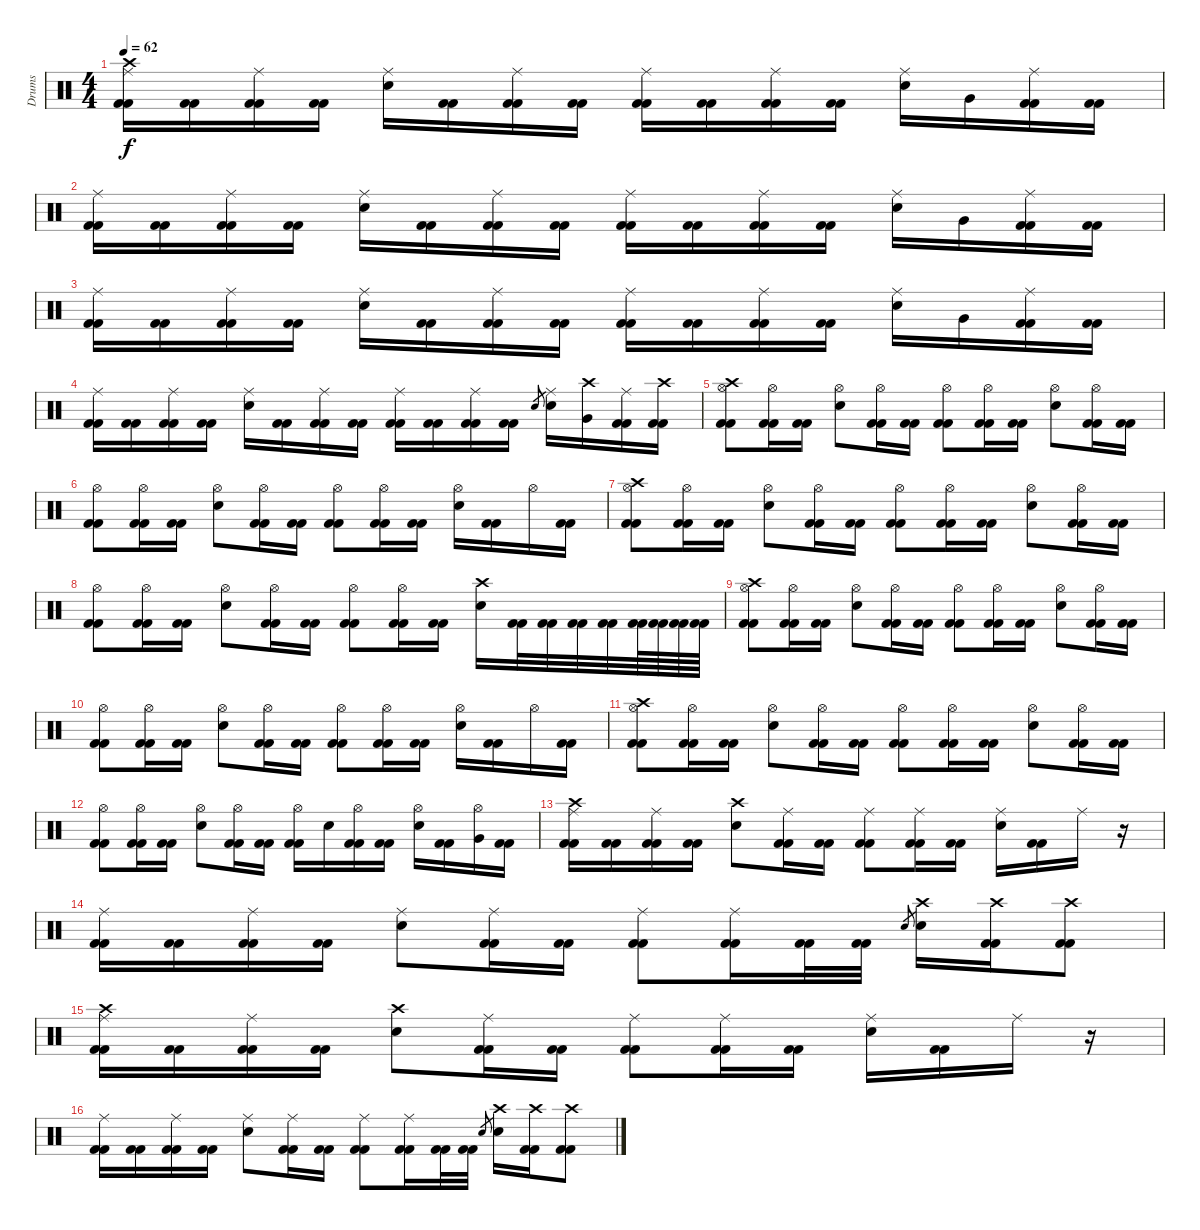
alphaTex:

\track ("Drums" "Drums") {instrument percussion}
\staff {score}
\articulation defaults
\ts (4 4)
\tempo 62
\clef neutral
\ks c
("Kick (hit) 2" "Kick (hit) 2" "Ride (middle)" "Crash high (hit)").16{dy f} ("Kick (hit) 2" "Kick (hit) 2").16 ("Kick (hit) 2" "Kick (hit) 2" "Ride (middle)").16 ("Kick (hit) 2" "Kick (hit) 2").16 ("Electric Snare (hit)" "Ride (middle)").16 ("Kick (hit) 2" "Kick (hit) 2").16 ("Kick (hit) 2" "Kick (hit) 2" "Ride (middle)").16 ("Kick (hit) 2" "Kick (hit) 2").16 ("Kick (hit) 2" "Kick (hit) 2" "Ride (middle)").16 ("Kick (hit) 2" "Kick (hit) 2").16 ("Kick (hit) 2" "Kick (hit) 2" "Ride (middle)").16 ("Kick (hit) 2" "Kick (hit) 2").16 ("Electric Snare (hit)" "Ride (middle)").16 "Very Low Tom (hit)".16 ("Kick (hit) 2" "Kick (hit) 2" "Ride (middle)").16 ("Kick (hit) 2" "Kick (hit) 2").16 |
("Kick (hit) 2" "Kick (hit) 2" "Ride (middle)").16 ("Kick (hit) 2" "Kick (hit) 2").16 ("Kick (hit) 2" "Kick (hit) 2" "Ride (middle)").16 ("Kick (hit) 2" "Kick (hit) 2").16 ("Electric Snare (hit)" "Ride (middle)").16 ("Kick (hit) 2" "Kick (hit) 2").16 ("Kick (hit) 2" "Kick (hit) 2" "Ride (middle)").16 ("Kick (hit) 2" "Kick (hit) 2").16 ("Kick (hit) 2" "Kick (hit) 2" "Ride (middle)").16 ("Kick (hit) 2" "Kick (hit) 2").16 ("Kick (hit) 2" "Kick (hit) 2" "Ride (middle)").16 ("Kick (hit) 2" "Kick (hit) 2").16 ("Electric Snare (hit)" "Ride (middle)").16 "Very Low Tom (hit)".16 ("Kick (hit) 2" "Kick (hit) 2" "Ride (middle)").16 ("Kick (hit) 2" "Kick (hit) 2").16 |
("Kick (hit) 2" "Kick (hit) 2" "Ride (middle)").16 ("Kick (hit) 2" "Kick (hit) 2").16 ("Kick (hit) 2" "Kick (hit) 2" "Ride (middle)").16 ("Kick (hit) 2" "Kick (hit) 2").16 ("Electric Snare (hit)" "Ride (middle)").16 ("Kick (hit) 2" "Kick (hit) 2").16 ("Kick (hit) 2" "Kick (hit) 2" "Ride (middle)").16 ("Kick (hit) 2" "Kick (hit) 2").16 ("Kick (hit) 2" "Kick (hit) 2" "Ride (middle)").16 ("Kick (hit) 2" "Kick (hit) 2").16 ("Kick (hit) 2" "Kick (hit) 2" "Ride (middle)").16 ("Kick (hit) 2" "Kick (hit) 2").16 ("Electric Snare (hit)" "Ride (middle)").16 "Very Low Tom (hit)".16 ("Kick (hit) 2" "Kick (hit) 2" "Ride (middle)").16 ("Kick (hit) 2" "Kick (hit) 2").16 |
("Kick (hit) 2" "Kick (hit) 2" "Ride (middle)").16 ("Kick (hit) 2" "Kick (hit) 2").16 ("Kick (hit) 2" "Kick (hit) 2" "Ride (middle)").16 ("Kick (hit) 2" "Kick (hit) 2").16 ("Electric Snare (hit)" "Ride (middle)").16 ("Kick (hit) 2" "Kick (hit) 2").16 ("Kick (hit) 2" "Kick (hit) 2" "Ride (middle)").16 ("Kick (hit) 2" "Kick (hit) 2").16 ("Kick (hit) 2" "Kick (hit) 2" "Ride (middle)").16 ("Kick (hit) 2" "Kick (hit) 2").16 ("Kick (hit) 2" "Kick (hit) 2" "Ride (middle)").16 ("Kick (hit) 2" "Kick (hit) 2").16 "Electric Snare (hit)".8{gr} ("Electric Snare (hit)" "Ride (middle)").16 ("Very Low Tom (hit)" "Crash high (hit)").16 ("Kick (hit) 2" "Kick (hit) 2" "Ride (middle)").16 ("Kick (hit) 2" "Kick (hit) 2" "Crash high (hit)").16 |
("Kick (hit) 2" "Kick (hit) 2" "Hi-Hat (open)" "Crash high (hit)").8 ("Kick (hit) 2" "Kick (hit) 2" "Hi-Hat (open)").16 ("Kick (hit) 2" "Kick (hit) 2").16 ("Electric Snare (hit)" "Hi-Hat (open)").8 ("Kick (hit) 2" "Kick (hit) 2" "Hi-Hat (open)").16 ("Kick (hit) 2" "Kick (hit) 2").16 ("Kick (hit) 2" "Kick (hit) 2" "Hi-Hat (open)").8 ("Kick (hit) 2" "Kick (hit) 2" "Hi-Hat (open)").16 ("Kick (hit) 2" "Kick (hit) 2").16 ("Electric Snare (hit)" "Hi-Hat (open)").8 ("Kick (hit) 2" "Kick (hit) 2" "Hi-Hat (open)").16 ("Kick (hit) 2" "Kick (hit) 2").16 |
("Kick (hit) 2" "Kick (hit) 2" "Hi-Hat (open)").8 ("Kick (hit) 2" "Kick (hit) 2" "Hi-Hat (open)").16 ("Kick (hit) 2" "Kick (hit) 2").16 ("Electric Snare (hit)" "Hi-Hat (open)").8 ("Kick (hit) 2" "Kick (hit) 2" "Hi-Hat (open)").16 ("Kick (hit) 2" "Kick (hit) 2").16 ("Kick (hit) 2" "Kick (hit) 2" "Hi-Hat (open)").8 ("Kick (hit) 2" "Kick (hit) 2" "Hi-Hat (open)").16 ("Kick (hit) 2" "Kick (hit) 2").16 ("Electric Snare (hit)" "Hi-Hat (open)").16 ("Kick (hit) 2" "Kick (hit) 2").16 "Hi-Hat (open)".16 ("Kick (hit) 2" "Kick (hit) 2").16 |
("Kick (hit) 2" "Kick (hit) 2" "Hi-Hat (open)" "Crash high (hit)").8 ("Kick (hit) 2" "Kick (hit) 2" "Hi-Hat (open)").16 ("Kick (hit) 2" "Kick (hit) 2").16 ("Electric Snare (hit)" "Hi-Hat (open)").8 ("Kick (hit) 2" "Kick (hit) 2" "Hi-Hat (open)").16 ("Kick (hit) 2" "Kick (hit) 2").16 ("Kick (hit) 2" "Kick (hit) 2" "Hi-Hat (open)").8 ("Kick (hit) 2" "Kick (hit) 2" "Hi-Hat (open)").16 ("Kick (hit) 2" "Kick (hit) 2").16 ("Electric Snare (hit)" "Hi-Hat (open)").8 ("Kick (hit) 2" "Kick (hit) 2" "Hi-Hat (open)").16 ("Kick (hit) 2" "Kick (hit) 2").16 |
("Kick (hit) 2" "Kick (hit) 2" "Hi-Hat (open)").8 ("Kick (hit) 2" "Kick (hit) 2" "Hi-Hat (open)").16 ("Kick (hit) 2" "Kick (hit) 2").16 ("Electric Snare (hit)" "Hi-Hat (open)").8 ("Kick (hit) 2" "Kick (hit) 2" "Hi-Hat (open)").16 ("Kick (hit) 2" "Kick (hit) 2").16 ("Kick (hit) 2" "Kick (hit) 2" "Hi-Hat (open)").8 ("Kick (hit) 2" "Kick (hit) 2" "Hi-Hat (open)").16 ("Kick (hit) 2" "Kick (hit) 2").16 ("Electric Snare (hit)" "Crash high (hit)").16 ("Kick (hit) 2" "Kick (hit) 2").32 ("Kick (hit) 2" "Kick (hit) 2").32 ("Kick (hit) 2" "Kick (hit) 2").32 ("Kick (hit) 2" "Kick (hit) 2").32 ("Kick (hit) 2" "Kick (hit) 2").64 ("Kick (hit) 2" "Kick (hit) 2").64 ("Kick (hit) 2" "Kick (hit) 2").64 ("Kick (hit) 2" "Kick (hit) 2").64 |
("Kick (hit) 2" "Kick (hit) 2" "Hi-Hat (open)" "Crash high (hit)").8 ("Kick (hit) 2" "Kick (hit) 2" "Hi-Hat (open)").16 ("Kick (hit) 2" "Kick (hit) 2").16 ("Electric Snare (hit)" "Hi-Hat (open)").8 ("Kick (hit) 2" "Kick (hit) 2" "Hi-Hat (open)").16 ("Kick (hit) 2" "Kick (hit) 2").16 ("Kick (hit) 2" "Kick (hit) 2" "Hi-Hat (open)").8 ("Kick (hit) 2" "Kick (hit) 2" "Hi-Hat (open)").16 ("Kick (hit) 2" "Kick (hit) 2").16 ("Electric Snare (hit)" "Hi-Hat (open)").8 ("Kick (hit) 2" "Kick (hit) 2" "Hi-Hat (open)").16 ("Kick (hit) 2" "Kick (hit) 2").16 |
("Kick (hit) 2" "Kick (hit) 2" "Hi-Hat (open)").8 ("Kick (hit) 2" "Kick (hit) 2" "Hi-Hat (open)").16 ("Kick (hit) 2" "Kick (hit) 2").16 ("Electric Snare (hit)" "Hi-Hat (open)").8 ("Kick (hit) 2" "Kick (hit) 2" "Hi-Hat (open)").16 ("Kick (hit) 2" "Kick (hit) 2").16 ("Kick (hit) 2" "Kick (hit) 2" "Hi-Hat (open)").8 ("Kick (hit) 2" "Kick (hit) 2" "Hi-Hat (open)").16 ("Kick (hit) 2" "Kick (hit) 2").16 ("Electric Snare (hit)" "Hi-Hat (open)").16 ("Kick (hit) 2" "Kick (hit) 2").16 "Hi-Hat (open)".16 ("Kick (hit) 2" "Kick (hit) 2").16 |
("Kick (hit) 2" "Kick (hit) 2" "Hi-Hat (open)" "Crash high (hit)").8 ("Kick (hit) 2" "Kick (hit) 2" "Hi-Hat (open)").16 ("Kick (hit) 2" "Kick (hit) 2").16 ("Electric Snare (hit)" "Hi-Hat (open)").8 ("Kick (hit) 2" "Kick (hit) 2" "Hi-Hat (open)").16 ("Kick (hit) 2" "Kick (hit) 2").16 ("Kick (hit) 2" "Kick (hit) 2" "Hi-Hat (open)").8 ("Kick (hit) 2" "Kick (hit) 2" "Hi-Hat (open)").16 ("Kick (hit) 2" "Kick (hit) 2").16 ("Electric Snare (hit)" "Hi-Hat (open)").8 ("Kick (hit) 2" "Kick (hit) 2" "Hi-Hat (open)").16 ("Kick (hit) 2" "Kick (hit) 2").16 |
("Kick (hit) 2" "Kick (hit) 2" "Hi-Hat (open)").8 ("Kick (hit) 2" "Kick (hit) 2" "Hi-Hat (open)").16 ("Kick (hit) 2" "Kick (hit) 2").16 ("Electric Snare (hit)" "Hi-Hat (open)").8 ("Kick (hit) 2" "Kick (hit) 2" "Hi-Hat (open)").16 ("Kick (hit) 2" "Kick (hit) 2").16 ("Kick (hit) 2" "Kick (hit) 2" "Hi-Hat (open)").16 "Electric Snare (hit)".16 ("Kick (hit) 2" "Kick (hit) 2" "Hi-Hat (open)").16 ("Kick (hit) 2" "Kick (hit) 2").16 ("Electric Snare (hit)" "Hi-Hat (open)").16 ("Kick (hit) 2" "Kick (hit) 2").16 ("Very Low Tom (hit)" "Hi-Hat (open)").16 ("Kick (hit) 2" "Kick (hit) 2").16 |
("Kick (hit) 2" "Kick (hit) 2" "Ride (middle)" "Crash high (hit)").16 ("Kick (hit) 2" "Kick (hit) 2").16 ("Kick (hit) 2" "Kick (hit) 2" "Ride (middle)").16 ("Kick (hit) 2" "Kick (hit) 2").16 ("Electric Snare (hit)" "Crash high (hit)").8 ("Kick (hit) 2" "Kick (hit) 2" "Ride (middle)").16 ("Kick (hit) 2" "Kick (hit) 2").16 ("Kick (hit) 2" "Kick (hit) 2" "Ride (middle)").8 ("Kick (hit) 2" "Kick (hit) 2" "Ride (middle)").16 ("Kick (hit) 2" "Kick (hit) 2").16 ("Electric Snare (hit)" "Ride (middle)").16 ("Kick (hit) 2" "Kick (hit) 2").16 "Ride (middle)".16 r.16 |
("Kick (hit) 2" "Kick (hit) 2" "Ride (middle)").16 ("Kick (hit) 2" "Kick (hit) 2").16 ("Kick (hit) 2" "Kick (hit) 2" "Ride (middle)").16 ("Kick (hit) 2" "Kick (hit) 2").16 ("Electric Snare (hit)" "Ride (middle)").8 ("Kick (hit) 2" "Kick (hit) 2" "Ride (middle)").16 ("Kick (hit) 2" "Kick (hit) 2").16 ("Kick (hit) 2" "Kick (hit) 2" "Ride (middle)").8 ("Kick (hit) 2" "Kick (hit) 2" "Ride (middle)").16 ("Kick (hit) 2" "Kick (hit) 2").32 ("Kick (hit) 2" "Kick (hit) 2").32 "Electric Snare (hit)".8{gr} ("Electric Snare (hit)" "Crash high (hit)").16 ("Kick (hit) 2" "Kick (hit) 2" "Crash high (hit)").16 ("Kick (hit) 2" "Kick (hit) 2" "Crash high (hit)").8 |
("Kick (hit) 2" "Kick (hit) 2" "Ride (middle)" "Crash high (hit)").16 ("Kick (hit) 2" "Kick (hit) 2").16 ("Kick (hit) 2" "Kick (hit) 2" "Ride (middle)").16 ("Kick (hit) 2" "Kick (hit) 2").16 ("Electric Snare (hit)" "Crash high (hit)").8 ("Kick (hit) 2" "Kick (hit) 2" "Ride (middle)").16 ("Kick (hit) 2" "Kick (hit) 2").16 ("Kick (hit) 2" "Kick (hit) 2" "Ride (middle)").8 ("Kick (hit) 2" "Kick (hit) 2" "Ride (middle)").16 ("Kick (hit) 2" "Kick (hit) 2").16 ("Electric Snare (hit)" "Ride (middle)").16 ("Kick (hit) 2" "Kick (hit) 2").16 "Ride (middle)".16 r.16 |
("Kick (hit) 2" "Kick (hit) 2" "Ride (middle)").16 ("Kick (hit) 2" "Kick (hit) 2").16 ("Kick (hit) 2" "Kick (hit) 2" "Ride (middle)").16 ("Kick (hit) 2" "Kick (hit) 2").16 ("Electric Snare (hit)" "Ride (middle)").8 ("Kick (hit) 2" "Kick (hit) 2" "Ride (middle)").16 ("Kick (hit) 2" "Kick (hit) 2").16 ("Kick (hit) 2" "Kick (hit) 2" "Ride (middle)").8 ("Kick (hit) 2" "Kick (hit) 2" "Ride (middle)").16 ("Kick (hit) 2" "Kick (hit) 2").32 ("Kick (hit) 2" "Kick (hit) 2").32 "Electric Snare (hit)".8{gr} ("Electric Snare (hit)" "Crash high (hit)").16 ("Kick (hit) 2" "Kick (hit) 2" "Crash high (hit)").16 ("Kick (hit) 2" "Kick (hit) 2" "Crash high (hit)").8
